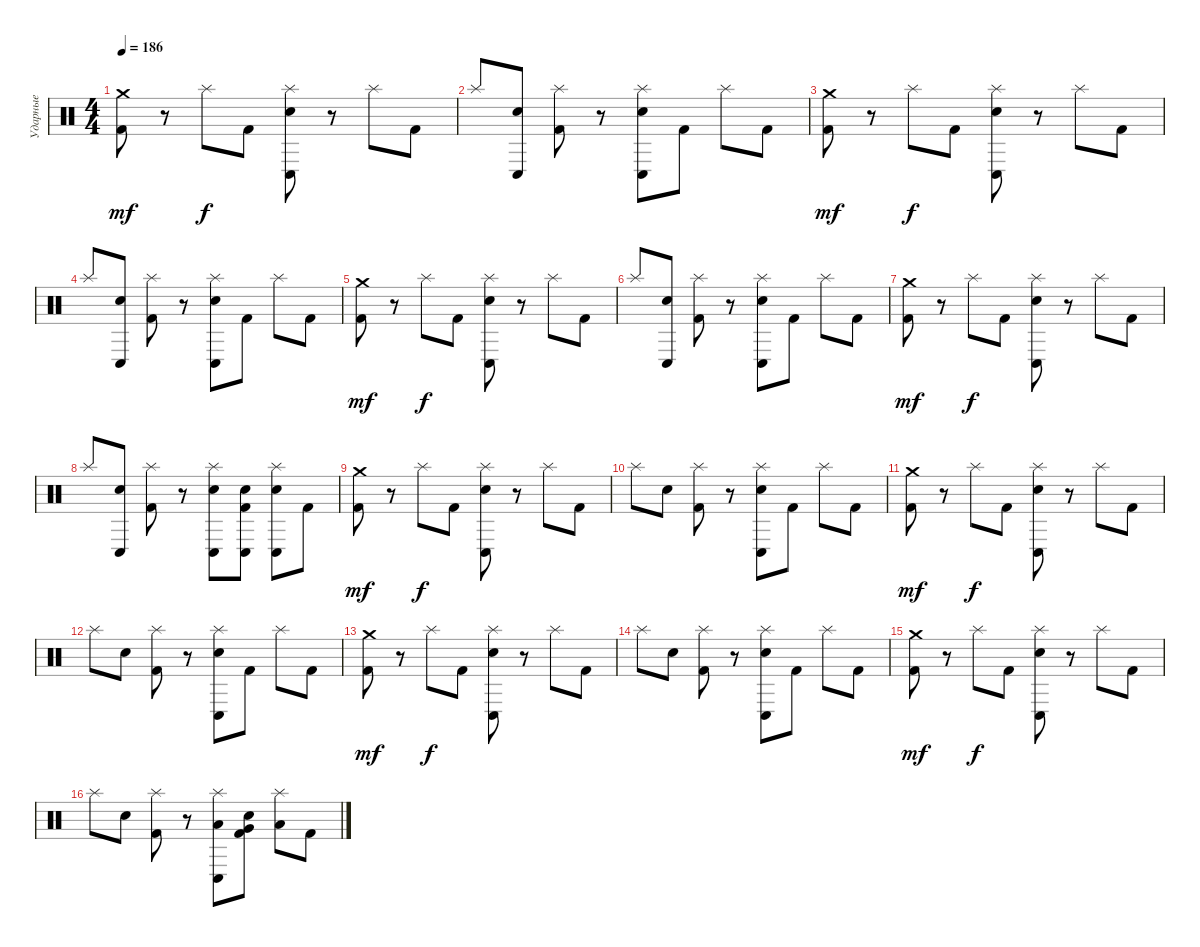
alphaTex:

\track ("Ударные" "Ударные") {instrument percussion}
\staff {score}
\articulation defaults
\ts (4 4)
\tempo 186
\clef neutral
\ks c
("Crash medium (hit)" "Kick (hit) 2").8{dy mf} r.8 "Splash (hit)".8{dy f} "Kick (hit) 2".8 ("Splash (hit)" "Conga low (hit)" "Electric Snare (hit)").8 r.8 "Splash (hit)".8 "Kick (hit) 2".8 |
"Splash (hit)".8 ("Conga low (hit)" "Electric Snare (hit)").8 ("Splash (hit)" "Kick (hit) 2").8 r.8 ("Splash (hit)" "Conga low (hit)" "Electric Snare (hit)").8 "Kick (hit) 2".8 "Splash (hit)".8 "Kick (hit) 2".8 |
("Crash medium (hit)" "Kick (hit) 2").8{dy mf} r.8 "Splash (hit)".8{dy f} "Kick (hit) 2".8 ("Splash (hit)" "Conga low (hit)" "Electric Snare (hit)").8 r.8 "Splash (hit)".8 "Kick (hit) 2".8 |
"Splash (hit)".8 ("Conga low (hit)" "Electric Snare (hit)").8 ("Splash (hit)" "Kick (hit) 2").8 r.8 ("Splash (hit)" "Conga low (hit)" "Electric Snare (hit)").8 "Kick (hit) 2".8 "Splash (hit)".8 "Kick (hit) 2".8 |
("Crash medium (hit)" "Kick (hit) 2").8{dy mf} r.8 "Splash (hit)".8{dy f} "Kick (hit) 2".8 ("Splash (hit)" "Conga low (hit)" "Electric Snare (hit)").8 r.8 "Splash (hit)".8 "Kick (hit) 2".8 |
"Splash (hit)".8 ("Conga low (hit)" "Electric Snare (hit)").8 ("Splash (hit)" "Kick (hit) 2").8 r.8 ("Splash (hit)" "Conga low (hit)" "Electric Snare (hit)").8 "Kick (hit) 2".8 "Splash (hit)".8 "Kick (hit) 2".8 |
("Crash medium (hit)" "Kick (hit) 2").8{dy mf} r.8 "Splash (hit)".8{dy f} "Kick (hit) 2".8 ("Splash (hit)" "Conga low (hit)" "Electric Snare (hit)").8 r.8 "Splash (hit)".8 "Kick (hit) 2".8 |
"Splash (hit)".8 ("Conga low (hit)" "Electric Snare (hit)").8 ("Splash (hit)" "Kick (hit) 2").8 r.8 ("Splash (hit)" "Conga low (hit)" "Electric Snare (hit)").8 ("Conga low (hit)" "Electric Snare (hit)" "Kick (hit) 2").8 ("Splash (hit)" "Conga low (hit)" "Electric Snare (hit)").8 "Kick (hit) 2".8 |
("Crash medium (hit)" "Kick (hit) 2").8{dy mf} r.8 "Splash (hit)".8{dy f} "Kick (hit) 2".8 ("Splash (hit)" "Conga low (hit)" "Electric Snare (hit)").8 r.8 "Splash (hit)".8 "Kick (hit) 2".8 |
"Splash (hit)".8 "Electric Snare (hit)".8 ("Splash (hit)" "Kick (hit) 2").8 r.8 ("Splash (hit)" "Conga low (hit)" "Electric Snare (hit)").8 "Kick (hit) 2".8 "Splash (hit)".8 "Kick (hit) 2".8 |
("Crash medium (hit)" "Kick (hit) 2").8{dy mf} r.8 "Splash (hit)".8{dy f} "Kick (hit) 2".8 ("Splash (hit)" "Conga low (hit)" "Electric Snare (hit)").8 r.8 "Splash (hit)".8 "Kick (hit) 2".8 |
"Splash (hit)".8 "Electric Snare (hit)".8 ("Splash (hit)" "Kick (hit) 2").8 r.8 ("Splash (hit)" "Conga low (hit)" "Electric Snare (hit)").8 "Kick (hit) 2".8 "Splash (hit)".8 "Kick (hit) 2".8 |
("Crash medium (hit)" "Kick (hit) 2").8{dy mf} r.8 "Splash (hit)".8{dy f} "Kick (hit) 2".8 ("Splash (hit)" "Conga low (hit)" "Electric Snare (hit)").8 r.8 "Splash (hit)".8 "Kick (hit) 2".8 |
"Splash (hit)".8 "Electric Snare (hit)".8 ("Splash (hit)" "Kick (hit) 2").8 r.8 ("Splash (hit)" "Conga low (hit)" "Electric Snare (hit)").8 "Kick (hit) 2".8 "Splash (hit)".8 "Kick (hit) 2".8 |
("Crash medium (hit)" "Kick (hit) 2").8{dy mf} r.8 "Splash (hit)".8{dy f} "Kick (hit) 2".8 ("Splash (hit)" "Conga low (hit)" "Electric Snare (hit)").8 r.8 "Splash (hit)".8 "Kick (hit) 2".8 |
"Splash (hit)".8 "Electric Snare (hit)".8 ("Splash (hit)" "Kick (hit) 2").8 r.8 ("Splash (hit)" "Conga low (hit)" "Low Tom (hit)").8 ("Electric Snare (hit)" "Very Low Tom (hit)" "Kick (hit) 2").8 ("Splash (hit)" "Low Floor Tom (hit)").8 "Kick (hit) 2".8
